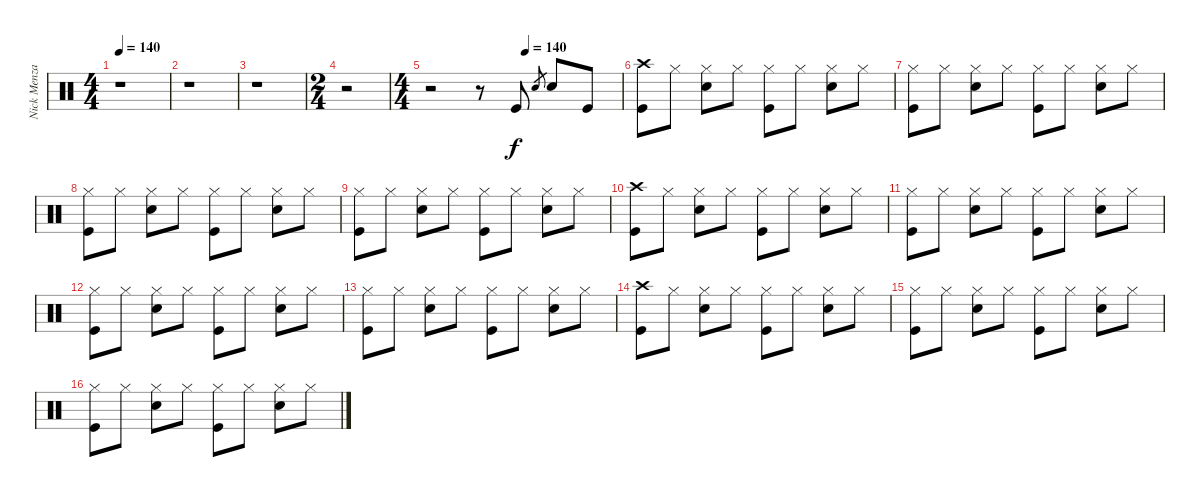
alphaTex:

\track ("Nick Menza (Drums)" "Nick Menza") {instrument percussion}
\staff {score}
\articulation defaults
\ts (4 4)
\tempo 140
\tempo 70
\tempo 140
\clef neutral
\ks c
r.1{dy f} |
r.1 |
r.1 |
\ts (2 4)
r.2 |
\ts (4 4)
\tempo (140 0.5)
r.2 r.8 "Kick (hit)".8 "Snare (hit) 2".8{gr} "Snare (hit) 2".8 "Kick (hit)".8 |
("Crash high (hit)" "Kick (hit)").8 "Hi-Hat (closed)".8 ("Hi-Hat (closed)" "Snare (hit) 2").8 "Hi-Hat (closed)".8 ("Hi-Hat (closed)" "Kick (hit)").8 "Hi-Hat (closed)".8 ("Hi-Hat (closed)" "Snare (hit) 2").8 "Hi-Hat (closed)".8 |
("Hi-Hat (closed)" "Kick (hit)").8 "Hi-Hat (closed)".8 ("Hi-Hat (closed)" "Snare (hit) 2").8 "Hi-Hat (closed)".8 ("Hi-Hat (closed)" "Kick (hit)").8 "Hi-Hat (closed)".8 ("Hi-Hat (closed)" "Snare (hit) 2").8 "Hi-Hat (closed)".8 |
("Hi-Hat (closed)" "Kick (hit)").8 "Hi-Hat (closed)".8 ("Hi-Hat (closed)" "Snare (hit) 2").8 "Hi-Hat (closed)".8 ("Hi-Hat (closed)" "Kick (hit)").8 "Hi-Hat (closed)".8 ("Hi-Hat (closed)" "Snare (hit) 2").8 "Hi-Hat (closed)".8 |
("Hi-Hat (closed)" "Kick (hit)").8 "Hi-Hat (closed)".8 ("Hi-Hat (closed)" "Snare (hit) 2").8 "Hi-Hat (closed)".8 ("Hi-Hat (closed)" "Kick (hit)").8 "Hi-Hat (closed)".8 ("Hi-Hat (closed)" "Snare (hit) 2").8 "Hi-Hat (closed)".8 |
("Crash high (hit)" "Kick (hit)").8 "Hi-Hat (closed)".8 ("Hi-Hat (closed)" "Snare (hit) 2").8 "Hi-Hat (closed)".8 ("Hi-Hat (closed)" "Kick (hit)").8 "Hi-Hat (closed)".8 ("Hi-Hat (closed)" "Snare (hit) 2").8 "Hi-Hat (closed)".8 |
("Hi-Hat (closed)" "Kick (hit)").8 "Hi-Hat (closed)".8 ("Hi-Hat (closed)" "Snare (hit) 2").8 "Hi-Hat (closed)".8 ("Hi-Hat (closed)" "Kick (hit)").8 "Hi-Hat (closed)".8 ("Hi-Hat (closed)" "Snare (hit) 2").8 "Hi-Hat (closed)".8 |
("Hi-Hat (closed)" "Kick (hit)").8 "Hi-Hat (closed)".8 ("Hi-Hat (closed)" "Snare (hit) 2").8 "Hi-Hat (closed)".8 ("Hi-Hat (closed)" "Kick (hit)").8 "Hi-Hat (closed)".8 ("Hi-Hat (closed)" "Snare (hit) 2").8 "Hi-Hat (closed)".8 |
("Hi-Hat (closed)" "Kick (hit)").8 "Hi-Hat (closed)".8 ("Hi-Hat (closed)" "Snare (hit) 2").8 "Hi-Hat (closed)".8 ("Hi-Hat (closed)" "Kick (hit)").8 "Hi-Hat (closed)".8 ("Hi-Hat (closed)" "Snare (hit) 2").8 "Hi-Hat (closed)".8 |
("Crash high (hit)" "Kick (hit)").8 "Hi-Hat (closed)".8 ("Hi-Hat (closed)" "Snare (hit) 2").8 "Hi-Hat (closed)".8 ("Hi-Hat (closed)" "Kick (hit)").8 "Hi-Hat (closed)".8 ("Hi-Hat (closed)" "Snare (hit) 2").8 "Hi-Hat (closed)".8 |
("Hi-Hat (closed)" "Kick (hit)").8 "Hi-Hat (closed)".8 ("Hi-Hat (closed)" "Snare (hit) 2").8 "Hi-Hat (closed)".8 ("Hi-Hat (closed)" "Kick (hit)").8 "Hi-Hat (closed)".8 ("Hi-Hat (closed)" "Snare (hit) 2").8 "Hi-Hat (closed)".8 |
("Hi-Hat (closed)" "Kick (hit)").8 "Hi-Hat (closed)".8 ("Hi-Hat (closed)" "Snare (hit) 2").8 "Hi-Hat (closed)".8 ("Hi-Hat (closed)" "Kick (hit)").8 "Hi-Hat (closed)".8 ("Hi-Hat (closed)" "Snare (hit) 2").8 "Hi-Hat (closed)".8
